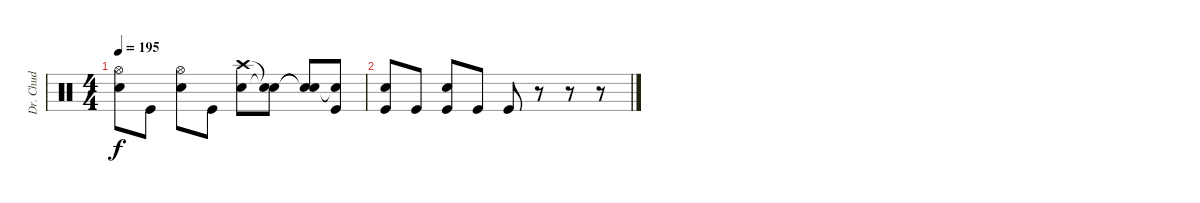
\track ("Dr. Chud" "Dr. Chud") {instrument percussion}
\staff {score}
\articulation defaults
\ts (4 4)
\tempo 195
\clef neutral
\ks c
("Hi-Hat (open)" "Snare (hit) 2").8{dy f} "Kick (hit)".8 ("Hi-Hat (open)" "Snare (hit) 2").8 "Kick (hit)".8 ("Crash high (hit)" "Snare (hit) 2").8 ("Snare (hit)"{t} "Snare (hit)"{t}).8 ("Snare (hit)"{t} "Snare (hit)"{t}).8 ("Snare (hit)"{t} "Kick (hit)").8 |
("Snare (hit) 2" "Kick (hit)").8 "Kick (hit)".8 ("Snare (hit) 2" "Kick (hit)").8 "Kick (hit)".8 "Kick (hit)".8 r.8 r.8 r.8
